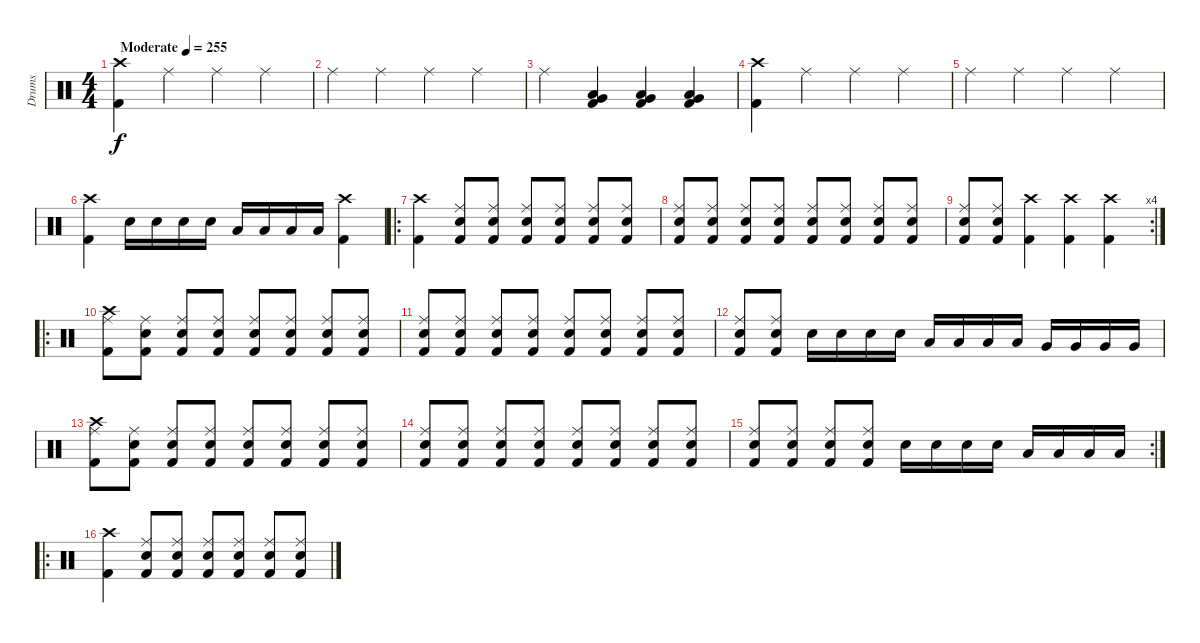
\track ("Drums" "Drums") {instrument percussion}
\staff {score}
\articulation defaults
\ts (4 4)
\tempo (255 "Moderate")
\clef neutral
\ks c
("Crash high (hit)" "Kick (hit) 2").4{dy f} "Ride (middle)".4 "Ride (middle)".4 "Ride (middle)".4 |
"Ride (middle)".4 "Ride (middle)".4 "Ride (middle)".4 "Ride (middle)".4 |
"Ride (middle)".4 ("Low Tom (hit)" "Very Low Tom (hit)" "Kick (hit) 2").4 ("Low Tom (hit)" "Very Low Tom (hit)" "Kick (hit) 2").4 ("Low Tom (hit)" "Very Low Tom (hit)" "Kick (hit) 2").4 |
("Crash high (hit)" "Kick (hit) 2").4 "Ride (middle)".4 "Ride (middle)".4 "Ride (middle)".4 |
"Ride (middle)".4 "Ride (middle)".4 "Ride (middle)".4 "Ride (middle)".4 |
("Crash high (hit)" "Kick (hit) 2").4 "Snare (hit) 2".16 "Snare (hit) 2".16 "Snare (hit) 2".16 "Snare (hit) 2".16 "Low Floor Tom (hit)".16 "Low Floor Tom (hit)".16 "Low Floor Tom (hit)".16 "Low Floor Tom (hit)".16 ("Crash high (hit)" "Kick (hit) 2").4 |
\ro
("Crash high (hit)" "Kick (hit) 2").4 ("Snare (hit) 2" "Ride (middle)" "Kick (hit) 2").8 ("Snare (hit) 2" "Ride (middle)" "Kick (hit) 2").8 ("Snare (hit) 2" "Ride (middle)" "Kick (hit) 2").8 ("Snare (hit) 2" "Ride (middle)" "Kick (hit) 2").8 ("Snare (hit) 2" "Ride (middle)" "Kick (hit) 2").8 ("Snare (hit) 2" "Ride (middle)" "Kick (hit) 2").8 |
("Snare (hit) 2" "Ride (middle)" "Kick (hit) 2").8 ("Snare (hit) 2" "Ride (middle)" "Kick (hit) 2").8 ("Snare (hit) 2" "Ride (middle)" "Kick (hit) 2").8 ("Snare (hit) 2" "Ride (middle)" "Kick (hit) 2").8 ("Snare (hit) 2" "Ride (middle)" "Kick (hit) 2").8 ("Snare (hit) 2" "Ride (middle)" "Kick (hit) 2").8 ("Snare (hit) 2" "Ride (middle)" "Kick (hit) 2").8 ("Snare (hit) 2" "Ride (middle)" "Kick (hit) 2").8 |
\rc 4
("Snare (hit) 2" "Ride (middle)" "Kick (hit) 2").8 ("Snare (hit) 2" "Ride (middle)" "Kick (hit) 2").8 ("Crash high (hit)" "Kick (hit) 2").4 ("Crash high (hit)" "Kick (hit) 2").4 ("Crash high (hit)" "Kick (hit) 2").4 |
\ro
("Crash high (hit)" "Ride (middle)" "Kick (hit) 2").8 ("Snare (hit) 2" "Ride (middle)" "Kick (hit) 2").8 ("Snare (hit) 2" "Ride (middle)" "Kick (hit) 2").8 ("Snare (hit) 2" "Ride (middle)" "Kick (hit) 2").8 ("Snare (hit) 2" "Ride (middle)" "Kick (hit) 2").8 ("Snare (hit) 2" "Ride (middle)" "Kick (hit) 2").8 ("Snare (hit) 2" "Ride (middle)" "Kick (hit) 2").8 ("Snare (hit) 2" "Ride (middle)" "Kick (hit) 2").8 |
("Snare (hit) 2" "Ride (middle)" "Kick (hit) 2").8 ("Snare (hit) 2" "Ride (middle)" "Kick (hit) 2").8 ("Snare (hit) 2" "Ride (middle)" "Kick (hit) 2").8 ("Snare (hit) 2" "Ride (middle)" "Kick (hit) 2").8 ("Snare (hit) 2" "Ride (middle)" "Kick (hit) 2").8 ("Snare (hit) 2" "Ride (middle)" "Kick (hit) 2").8 ("Snare (hit) 2" "Ride (middle)" "Kick (hit) 2").8 ("Snare (hit) 2" "Ride (middle)" "Kick (hit) 2").8 |
("Snare (hit) 2" "Ride (middle)" "Kick (hit) 2").8 ("Snare (hit) 2" "Ride (middle)" "Kick (hit) 2").8 "Snare (hit) 2".16 "Snare (hit) 2".16 "Snare (hit) 2".16 "Snare (hit) 2".16 "Low Floor Tom (hit)".16 "Low Floor Tom (hit)".16 "Low Floor Tom (hit)".16 "Low Floor Tom (hit)".16 "Very Low Tom (hit)".16 "Very Low Tom (hit)".16 "Very Low Tom (hit)".16 "Very Low Tom (hit)".16 |
("Crash high (hit)" "Ride (middle)" "Kick (hit) 2").8 ("Snare (hit) 2" "Ride (middle)" "Kick (hit) 2").8 ("Snare (hit) 2" "Ride (middle)" "Kick (hit) 2").8 ("Snare (hit) 2" "Ride (middle)" "Kick (hit) 2").8 ("Snare (hit) 2" "Ride (middle)" "Kick (hit) 2").8 ("Snare (hit) 2" "Ride (middle)" "Kick (hit) 2").8 ("Snare (hit) 2" "Ride (middle)" "Kick (hit) 2").8 ("Snare (hit) 2" "Ride (middle)" "Kick (hit) 2").8 |
("Snare (hit) 2" "Ride (middle)" "Kick (hit) 2").8 ("Snare (hit) 2" "Ride (middle)" "Kick (hit) 2").8 ("Snare (hit) 2" "Ride (middle)" "Kick (hit) 2").8 ("Snare (hit) 2" "Ride (middle)" "Kick (hit) 2").8 ("Snare (hit) 2" "Ride (middle)" "Kick (hit) 2").8 ("Snare (hit) 2" "Ride (middle)" "Kick (hit) 2").8 ("Snare (hit) 2" "Ride (middle)" "Kick (hit) 2").8 ("Snare (hit) 2" "Ride (middle)" "Kick (hit) 2").8 |
\rc 2
("Snare (hit) 2" "Ride (middle)" "Kick (hit) 2").8 ("Snare (hit) 2" "Ride (middle)" "Kick (hit) 2").8 ("Snare (hit) 2" "Ride (middle)" "Kick (hit) 2").8 ("Snare (hit) 2" "Ride (middle)" "Kick (hit) 2").8 "Snare (hit) 2".16 "Snare (hit) 2".16 "Snare (hit) 2".16 "Snare (hit) 2".16 "Low Floor Tom (hit)".16 "Low Floor Tom (hit)".16 "Low Tom (hit)".16 "Low Tom (hit)".16 |
\ro
("Crash high (hit)" "Kick (hit) 2").4 ("Snare (hit) 2" "Ride (middle)" "Kick (hit) 2").8 ("Snare (hit) 2" "Ride (middle)" "Kick (hit) 2").8 ("Snare (hit) 2" "Ride (middle)" "Kick (hit) 2").8 ("Snare (hit) 2" "Ride (middle)" "Kick (hit) 2").8 ("Snare (hit) 2" "Ride (middle)" "Kick (hit) 2").8 ("Snare (hit) 2" "Ride (middle)" "Kick (hit) 2").8
